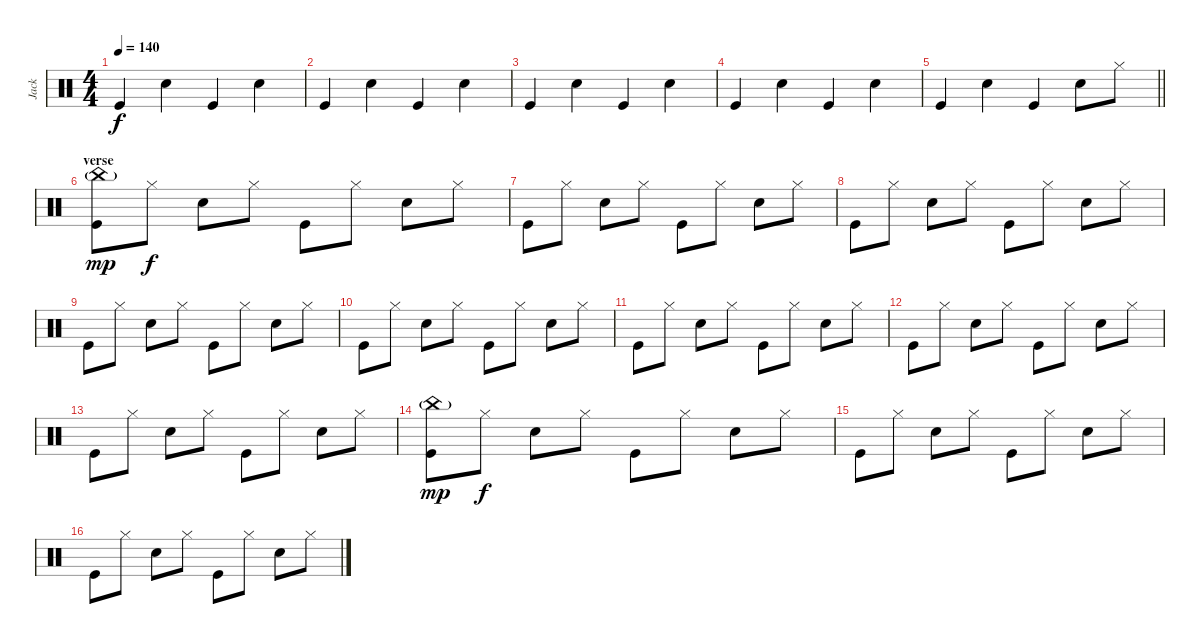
\track ("Jack" "Jack") {instrument percussion}
\staff {score}
\articulation defaults
\ts (4 4)
\tempo 140
\clef neutral
\ks c "Kick (hit)".4{dy f} "Snare (hit) 2".4 "Kick (hit)".4 "Snare (hit) 2".4
|
"Kick (hit)".4 "Snare (hit) 2".4 "Kick (hit)".4 "Snare (hit) 2".4 |
"Kick (hit)".4 "Snare (hit) 2".4 "Kick (hit)".4 "Snare (hit) 2".4 |
"Kick (hit)".4 "Snare (hit) 2".4 "Kick (hit)".4 "Snare (hit) 2".4 |
\barLineRight lightlight "Kick (hit)".4 "Snare (hit) 2".4 "Kick (hit)".4 "Snare (hit) 2".8 "Hi-Hat (closed)".8
|
\section ("" "verse")
("China (hit)"{g} "Kick (hit)").8{dy mp} "Hi-Hat (closed)".8{dy f} "Snare (hit) 2".8 "Hi-Hat (closed)".8 "Kick (hit)".8 "Hi-Hat (closed)".8 "Snare (hit) 2".8 "Hi-Hat (closed)".8 |
"Kick (hit)".8 "Hi-Hat (closed)".8 "Snare (hit) 2".8 "Hi-Hat (closed)".8 "Kick (hit)".8 "Hi-Hat (closed)".8 "Snare (hit) 2".8 "Hi-Hat (closed)".8 |
"Kick (hit)".8 "Hi-Hat (closed)".8 "Snare (hit) 2".8 "Hi-Hat (closed)".8 "Kick (hit)".8 "Hi-Hat (closed)".8 "Snare (hit) 2".8 "Hi-Hat (closed)".8 |
"Kick (hit)".8 "Hi-Hat (closed)".8 "Snare (hit) 2".8 "Hi-Hat (closed)".8 "Kick (hit)".8 "Hi-Hat (closed)".8 "Snare (hit) 2".8 "Hi-Hat (closed)".8 |
"Kick (hit)".8 "Hi-Hat (closed)".8 "Snare (hit) 2".8 "Hi-Hat (closed)".8 "Kick (hit)".8 "Hi-Hat (closed)".8 "Snare (hit) 2".8 "Hi-Hat (closed)".8 |
"Kick (hit)".8 "Hi-Hat (closed)".8 "Snare (hit) 2".8 "Hi-Hat (closed)".8 "Kick (hit)".8 "Hi-Hat (closed)".8 "Snare (hit) 2".8 "Hi-Hat (closed)".8 |
"Kick (hit)".8 "Hi-Hat (closed)".8 "Snare (hit) 2".8 "Hi-Hat (closed)".8 "Kick (hit)".8 "Hi-Hat (closed)".8 "Snare (hit) 2".8 "Hi-Hat (closed)".8 |
"Kick (hit)".8 "Hi-Hat (closed)".8 "Snare (hit) 2".8 "Hi-Hat (closed)".8 "Kick (hit)".8 "Hi-Hat (closed)".8 "Snare (hit) 2".8 "Hi-Hat (closed)".8 |
("China (hit)"{g} "Kick (hit)").8{dy mp} "Hi-Hat (closed)".8{dy f} "Snare (hit) 2".8 "Hi-Hat (closed)".8 "Kick (hit)".8 "Hi-Hat (closed)".8 "Snare (hit) 2".8 "Hi-Hat (closed)".8 |
"Kick (hit)".8 "Hi-Hat (closed)".8 "Snare (hit) 2".8 "Hi-Hat (closed)".8 "Kick (hit)".8 "Hi-Hat (closed)".8 "Snare (hit) 2".8 "Hi-Hat (closed)".8 |
"Kick (hit)".8 "Hi-Hat (closed)".8 "Snare (hit) 2".8 "Hi-Hat (closed)".8 "Kick (hit)".8 "Hi-Hat (closed)".8 "Snare (hit) 2".8 "Hi-Hat (closed)".8
